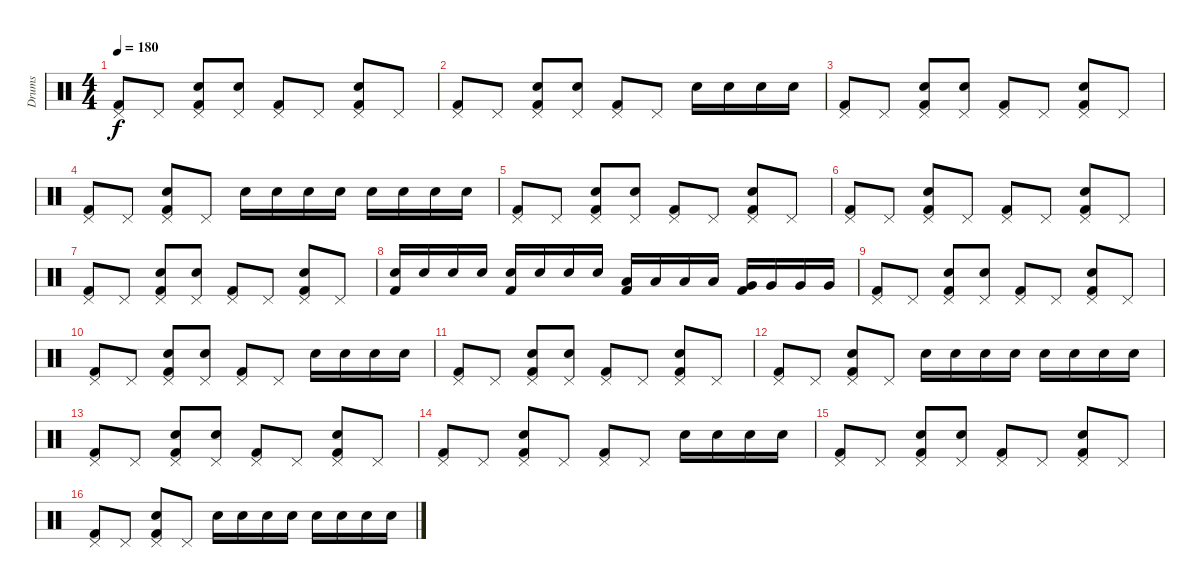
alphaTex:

\track ("Drums" "Drums") {instrument percussion}
\staff {score}
\articulation defaults
\ts (4 4)
\tempo 180
\clef neutral
\ks c
("Pedal Hi-Hat (hit)" "Kick (hit) 2").8{dy f} "Pedal Hi-Hat (hit)".8 ("Pedal Hi-Hat (hit)" "Kick (hit) 2" "Electric Snare (hit)").8 ("Pedal Hi-Hat (hit)" "Electric Snare (hit)").8 ("Pedal Hi-Hat (hit)" "Kick (hit) 2").8 "Pedal Hi-Hat (hit)".8 ("Pedal Hi-Hat (hit)" "Kick (hit) 2" "Electric Snare (hit)").8 "Pedal Hi-Hat (hit)".8 |
("Pedal Hi-Hat (hit)" "Kick (hit) 2").8 "Pedal Hi-Hat (hit)".8 ("Pedal Hi-Hat (hit)" "Kick (hit) 2" "Electric Snare (hit)").8 ("Pedal Hi-Hat (hit)" "Electric Snare (hit)").8 ("Pedal Hi-Hat (hit)" "Kick (hit) 2").8 "Pedal Hi-Hat (hit)".8 "Electric Snare (hit)".16 "Electric Snare (hit)".16 "Electric Snare (hit)".16 "Electric Snare (hit)".16 |
("Pedal Hi-Hat (hit)" "Kick (hit) 2").8 "Pedal Hi-Hat (hit)".8 ("Pedal Hi-Hat (hit)" "Kick (hit) 2" "Electric Snare (hit)").8 ("Pedal Hi-Hat (hit)" "Electric Snare (hit)").8 ("Pedal Hi-Hat (hit)" "Kick (hit) 2").8 "Pedal Hi-Hat (hit)".8 ("Pedal Hi-Hat (hit)" "Kick (hit) 2" "Electric Snare (hit)").8 "Pedal Hi-Hat (hit)".8 |
("Pedal Hi-Hat (hit)" "Kick (hit) 2").8 "Pedal Hi-Hat (hit)".8 ("Pedal Hi-Hat (hit)" "Kick (hit) 2" "Electric Snare (hit)").8 "Pedal Hi-Hat (hit)".8 "Electric Snare (hit)".16 "Electric Snare (hit)".16 "Electric Snare (hit)".16 "Electric Snare (hit)".16 "Electric Snare (hit)".16 "Electric Snare (hit)".16 "Electric Snare (hit)".16 "Electric Snare (hit)".16 |
("Pedal Hi-Hat (hit)" "Kick (hit) 2").8 "Pedal Hi-Hat (hit)".8 ("Pedal Hi-Hat (hit)" "Kick (hit) 2" "Electric Snare (hit)").8 ("Pedal Hi-Hat (hit)" "Electric Snare (hit)").8 ("Pedal Hi-Hat (hit)" "Kick (hit) 2").8 "Pedal Hi-Hat (hit)".8 ("Pedal Hi-Hat (hit)" "Kick (hit) 2" "Electric Snare (hit)").8 "Pedal Hi-Hat (hit)".8 |
("Pedal Hi-Hat (hit)" "Kick (hit) 2").8 "Pedal Hi-Hat (hit)".8 ("Pedal Hi-Hat (hit)" "Kick (hit) 2" "Electric Snare (hit)").8 "Pedal Hi-Hat (hit)".8 ("Pedal Hi-Hat (hit)" "Kick (hit) 2").8 "Pedal Hi-Hat (hit)".8 ("Pedal Hi-Hat (hit)" "Kick (hit) 2" "Electric Snare (hit)").8 "Pedal Hi-Hat (hit)".8 |
("Pedal Hi-Hat (hit)" "Kick (hit) 2").8 "Pedal Hi-Hat (hit)".8 ("Pedal Hi-Hat (hit)" "Kick (hit) 2" "Electric Snare (hit)").8 ("Pedal Hi-Hat (hit)" "Electric Snare (hit)").8 ("Pedal Hi-Hat (hit)" "Kick (hit) 2").8 "Pedal Hi-Hat (hit)".8 ("Pedal Hi-Hat (hit)" "Kick (hit) 2" "Electric Snare (hit)").8 "Pedal Hi-Hat (hit)".8 |
("Kick (hit) 2" "Electric Snare (hit)").16 "Electric Snare (hit)".16 "Electric Snare (hit)".16 "Electric Snare (hit)".16 ("Kick (hit) 2" "Electric Snare (hit)").16 "Electric Snare (hit)".16 "Electric Snare (hit)".16 "Electric Snare (hit)".16 ("Kick (hit) 2" "Low Floor Tom (hit)").16 "Low Floor Tom (hit)".16 "Low Floor Tom (hit)".16 "Low Floor Tom (hit)".16 ("Kick (hit) 2" "Very Low Tom (hit)").16 "Very Low Tom (hit)".16 "Very Low Tom (hit)".16 "Very Low Tom (hit)".16 |
("Pedal Hi-Hat (hit)" "Kick (hit) 2").8 "Pedal Hi-Hat (hit)".8 ("Pedal Hi-Hat (hit)" "Kick (hit) 2" "Electric Snare (hit)").8 ("Pedal Hi-Hat (hit)" "Electric Snare (hit)").8 ("Pedal Hi-Hat (hit)" "Kick (hit) 2").8 "Pedal Hi-Hat (hit)".8 ("Pedal Hi-Hat (hit)" "Kick (hit) 2" "Electric Snare (hit)").8 "Pedal Hi-Hat (hit)".8 |
("Pedal Hi-Hat (hit)" "Kick (hit) 2").8 "Pedal Hi-Hat (hit)".8 ("Pedal Hi-Hat (hit)" "Kick (hit) 2" "Electric Snare (hit)").8 ("Pedal Hi-Hat (hit)" "Electric Snare (hit)").8 ("Pedal Hi-Hat (hit)" "Kick (hit) 2").8 "Pedal Hi-Hat (hit)".8 "Electric Snare (hit)".16 "Electric Snare (hit)".16 "Electric Snare (hit)".16 "Electric Snare (hit)".16 |
("Pedal Hi-Hat (hit)" "Kick (hit) 2").8 "Pedal Hi-Hat (hit)".8 ("Pedal Hi-Hat (hit)" "Kick (hit) 2" "Electric Snare (hit)").8 ("Pedal Hi-Hat (hit)" "Electric Snare (hit)").8 ("Pedal Hi-Hat (hit)" "Kick (hit) 2").8 "Pedal Hi-Hat (hit)".8 ("Pedal Hi-Hat (hit)" "Kick (hit) 2" "Electric Snare (hit)").8 "Pedal Hi-Hat (hit)".8 |
("Pedal Hi-Hat (hit)" "Kick (hit) 2").8 "Pedal Hi-Hat (hit)".8 ("Pedal Hi-Hat (hit)" "Kick (hit) 2" "Electric Snare (hit)").8 "Pedal Hi-Hat (hit)".8 "Electric Snare (hit)".16 "Electric Snare (hit)".16 "Electric Snare (hit)".16 "Electric Snare (hit)".16 "Electric Snare (hit)".16 "Electric Snare (hit)".16 "Electric Snare (hit)".16 "Electric Snare (hit)".16 |
("Pedal Hi-Hat (hit)" "Kick (hit) 2").8 "Pedal Hi-Hat (hit)".8 ("Pedal Hi-Hat (hit)" "Kick (hit) 2" "Electric Snare (hit)").8 ("Pedal Hi-Hat (hit)" "Electric Snare (hit)").8 ("Pedal Hi-Hat (hit)" "Kick (hit) 2").8 "Pedal Hi-Hat (hit)".8 ("Pedal Hi-Hat (hit)" "Kick (hit) 2" "Electric Snare (hit)").8 "Pedal Hi-Hat (hit)".8 |
("Pedal Hi-Hat (hit)" "Kick (hit) 2").8 "Pedal Hi-Hat (hit)".8 ("Pedal Hi-Hat (hit)" "Kick (hit) 2" "Electric Snare (hit)").8 "Pedal Hi-Hat (hit)".8 ("Pedal Hi-Hat (hit)" "Kick (hit) 2").8 "Pedal Hi-Hat (hit)".8 "Electric Snare (hit)".16 "Electric Snare (hit)".16 "Electric Snare (hit)".16 "Electric Snare (hit)".16 |
("Pedal Hi-Hat (hit)" "Kick (hit) 2").8 "Pedal Hi-Hat (hit)".8 ("Pedal Hi-Hat (hit)" "Kick (hit) 2" "Electric Snare (hit)").8 ("Pedal Hi-Hat (hit)" "Electric Snare (hit)").8 ("Pedal Hi-Hat (hit)" "Kick (hit) 2").8 "Pedal Hi-Hat (hit)".8 ("Pedal Hi-Hat (hit)" "Kick (hit) 2" "Electric Snare (hit)").8 "Pedal Hi-Hat (hit)".8 |
("Pedal Hi-Hat (hit)" "Kick (hit) 2").8 "Pedal Hi-Hat (hit)".8 ("Pedal Hi-Hat (hit)" "Kick (hit) 2" "Electric Snare (hit)").8 "Pedal Hi-Hat (hit)".8 "Electric Snare (hit)".16 "Electric Snare (hit)".16 "Electric Snare (hit)".16 "Electric Snare (hit)".16 "Electric Snare (hit)".16 "Electric Snare (hit)".16 "Electric Snare (hit)".16 "Electric Snare (hit)".16
